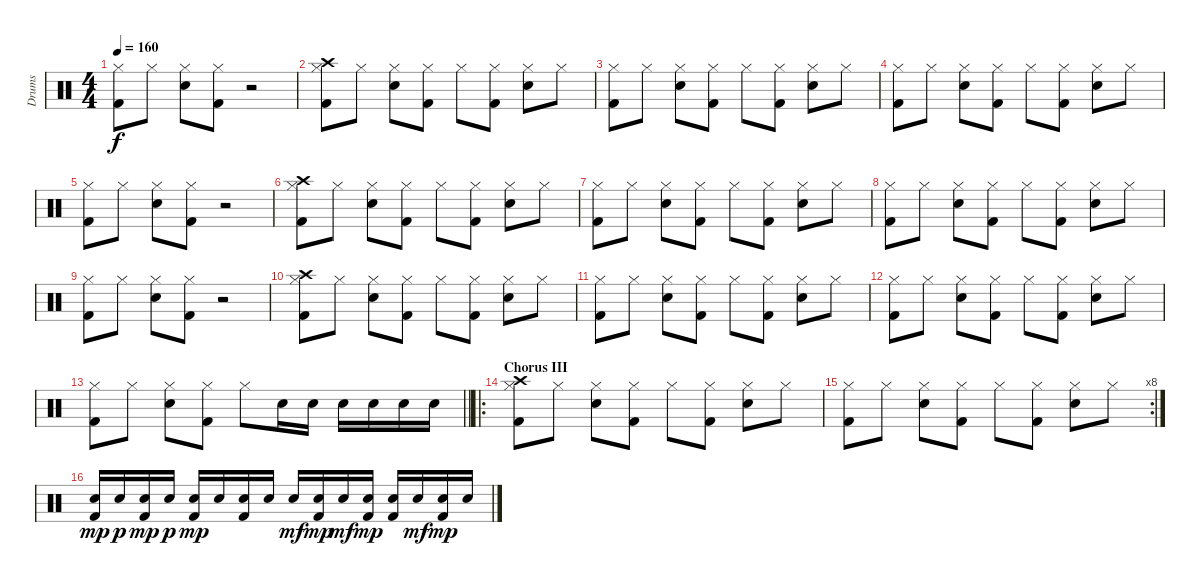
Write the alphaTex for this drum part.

\track ("Drums" "Drums") {instrument percussion}
\staff {score}
\articulation defaults
\ts (4 4)
\tempo 160
\clef neutral
\ks c
("Hi-Hat (closed)" "Kick (hit) 2").8{dy f} "Hi-Hat (closed)".8 ("Hi-Hat (closed)" "Snare (hit) 2").8 ("Hi-Hat (closed)" "Kick (hit) 2").8 r.2 |
("Crash high (hit)" "Hi-Hat (closed)" "Kick (hit) 2").8 "Hi-Hat (closed)".8 ("Hi-Hat (closed)" "Snare (hit) 2").8 ("Hi-Hat (closed)" "Kick (hit) 2").8 "Hi-Hat (closed)".8 ("Hi-Hat (closed)" "Kick (hit) 2").8 ("Hi-Hat (closed)" "Snare (hit) 2").8 "Hi-Hat (closed)".8 |
("Hi-Hat (closed)" "Kick (hit) 2").8 "Hi-Hat (closed)".8 ("Hi-Hat (closed)" "Snare (hit) 2").8 ("Hi-Hat (closed)" "Kick (hit) 2").8 "Hi-Hat (closed)".8 ("Hi-Hat (closed)" "Kick (hit) 2").8 ("Hi-Hat (closed)" "Snare (hit) 2").8 "Hi-Hat (closed)".8 |
("Hi-Hat (closed)" "Kick (hit) 2").8 "Hi-Hat (closed)".8 ("Hi-Hat (closed)" "Snare (hit) 2").8 ("Hi-Hat (closed)" "Kick (hit) 2").8 "Hi-Hat (closed)".8 ("Hi-Hat (closed)" "Kick (hit) 2").8 ("Hi-Hat (closed)" "Snare (hit) 2").8 "Hi-Hat (closed)".8 |
("Hi-Hat (closed)" "Kick (hit) 2").8 "Hi-Hat (closed)".8 ("Hi-Hat (closed)" "Snare (hit) 2").8 ("Hi-Hat (closed)" "Kick (hit) 2").8 r.2 |
("Crash high (hit)" "Hi-Hat (closed)" "Kick (hit) 2").8 "Hi-Hat (closed)".8 ("Hi-Hat (closed)" "Snare (hit) 2").8 ("Hi-Hat (closed)" "Kick (hit) 2").8 "Hi-Hat (closed)".8 ("Hi-Hat (closed)" "Kick (hit) 2").8 ("Hi-Hat (closed)" "Snare (hit) 2").8 "Hi-Hat (closed)".8 |
("Hi-Hat (closed)" "Kick (hit) 2").8 "Hi-Hat (closed)".8 ("Hi-Hat (closed)" "Snare (hit) 2").8 ("Hi-Hat (closed)" "Kick (hit) 2").8 "Hi-Hat (closed)".8 ("Hi-Hat (closed)" "Kick (hit) 2").8 ("Hi-Hat (closed)" "Snare (hit) 2").8 "Hi-Hat (closed)".8 |
("Hi-Hat (closed)" "Kick (hit) 2").8 "Hi-Hat (closed)".8 ("Hi-Hat (closed)" "Snare (hit) 2").8 ("Hi-Hat (closed)" "Kick (hit) 2").8 "Hi-Hat (closed)".8 ("Hi-Hat (closed)" "Kick (hit) 2").8 ("Hi-Hat (closed)" "Snare (hit) 2").8 "Hi-Hat (closed)".8 |
("Hi-Hat (closed)" "Kick (hit) 2").8 "Hi-Hat (closed)".8 ("Hi-Hat (closed)" "Snare (hit) 2").8 ("Hi-Hat (closed)" "Kick (hit) 2").8 r.2 |
("Crash high (hit)" "Hi-Hat (closed)" "Kick (hit) 2").8 "Hi-Hat (closed)".8 ("Hi-Hat (closed)" "Snare (hit) 2").8 ("Hi-Hat (closed)" "Kick (hit) 2").8 "Hi-Hat (closed)".8 ("Hi-Hat (closed)" "Kick (hit) 2").8 ("Hi-Hat (closed)" "Snare (hit) 2").8 "Hi-Hat (closed)".8 |
("Hi-Hat (closed)" "Kick (hit) 2").8 "Hi-Hat (closed)".8 ("Hi-Hat (closed)" "Snare (hit) 2").8 ("Hi-Hat (closed)" "Kick (hit) 2").8 "Hi-Hat (closed)".8 ("Hi-Hat (closed)" "Kick (hit) 2").8 ("Hi-Hat (closed)" "Snare (hit) 2").8 "Hi-Hat (closed)".8 |
("Hi-Hat (closed)" "Kick (hit) 2").8 "Hi-Hat (closed)".8 ("Hi-Hat (closed)" "Snare (hit) 2").8 ("Hi-Hat (closed)" "Kick (hit) 2").8 "Hi-Hat (closed)".8 ("Hi-Hat (closed)" "Kick (hit) 2").8 ("Hi-Hat (closed)" "Snare (hit) 2").8 "Hi-Hat (closed)".8 |
\barLineRight lightlight
("Hi-Hat (closed)" "Kick (hit) 2").8 "Hi-Hat (closed)".8 ("Hi-Hat (closed)" "Snare (hit) 2").8 ("Hi-Hat (closed)" "Kick (hit) 2").8 "Hi-Hat (closed)".8 "Snare (hit) 2".16 "Snare (hit) 2".16 "Snare (hit) 2".16 "Snare (hit) 2".16 "Snare (hit) 2".16 "Snare (hit) 2".16 |
\ro
\section ("" "Chorus III")
("Crash high (hit)" "Hi-Hat (closed)" "Kick (hit) 2").8 "Hi-Hat (closed)".8 ("Hi-Hat (closed)" "Snare (hit) 2").8 ("Hi-Hat (closed)" "Kick (hit) 2").8 "Hi-Hat (closed)".8 ("Hi-Hat (closed)" "Kick (hit) 2").8 ("Hi-Hat (closed)" "Snare (hit) 2").8 "Hi-Hat (closed)".8 |
\rc 8
("Hi-Hat (closed)" "Kick (hit) 2").8 "Hi-Hat (closed)".8 ("Hi-Hat (closed)" "Snare (hit) 2").8 ("Hi-Hat (closed)" "Kick (hit) 2").8 "Hi-Hat (closed)".8 ("Hi-Hat (closed)" "Kick (hit) 2").8 ("Hi-Hat (closed)" "Snare (hit) 2").8 "Hi-Hat (closed)".8 |
("Snare (hit) 2" "Kick (hit) 2").16{dy mp} "Snare (hit) 2".16{dy p} ("Snare (hit) 2" "Kick (hit) 2").16{dy mp} "Snare (hit) 2".16{dy p} ("Snare (hit) 2" "Kick (hit) 2").16{dy mp} "Snare (hit) 2".16 ("Snare (hit) 2" "Kick (hit) 2").16 "Snare (hit) 2".16 "Snare (hit) 2".16{dy mf} ("Snare (hit) 2" "Kick (hit) 2").16{dy mp} "Snare (hit) 2".16{dy mf} ("Snare (hit) 2" "Kick (hit) 2").16{dy mp} ("Snare (hit) 2" "Kick (hit) 2").16 "Snare (hit) 2".16{dy mf} ("Snare (hit) 2" "Kick (hit) 2").16{dy mp} "Snare (hit) 2".16
